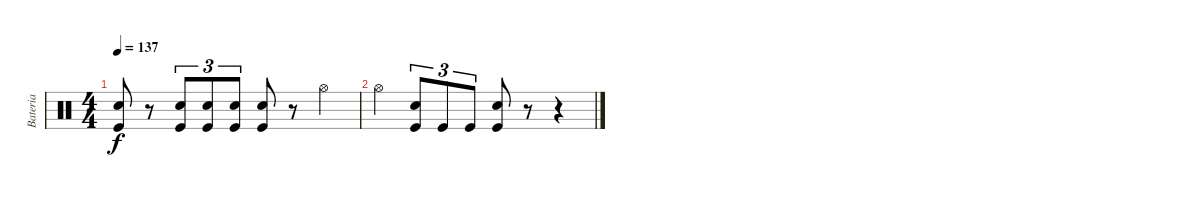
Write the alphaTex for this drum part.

\track ("Bateria" "Bateria") {instrument percussion}
\staff {score}
\articulation defaults
\ts (4 4)
\tempo 137
\clef neutral
\ks c
("Kick (hit)" "Snare (hit) 2").8{dy f} r.8 ("Kick (hit)" "Snare (hit) 2").8{tu (3 2)} ("Kick (hit)" "Snare (hit) 2").8{tu (3 2)} ("Kick (hit)" "Snare (hit) 2").8{tu (3 2)} ("Kick (hit)" "Snare (hit) 2").8 r.8 "Hi-Hat (open)".4 |
"Hi-Hat (open)".4 ("Kick (hit)" "Snare (hit) 2").8{tu (3 2)} "Kick (hit)".8{tu (3 2)} "Kick (hit)".8{tu (3 2)} ("Kick (hit)" "Snare (hit) 2").8 r.8 r.4
